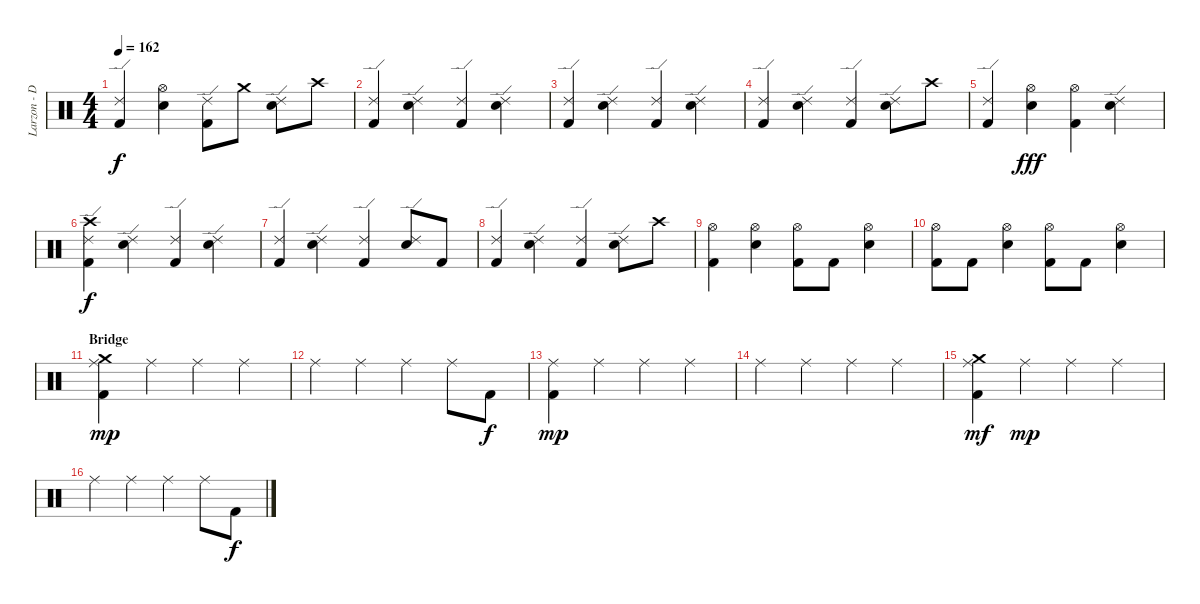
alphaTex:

\track ("Larzon - Drums" "Larzon - D") {instrument percussion}
\staff {score}
\articulation defaults
\ts (4 4)
\tempo 162
\clef neutral
\ks c
("Kick (hit) 2" "Ride (edge) 2").4{dy f} ("Electric Snare (hit)" "Hi-Hat (open)").4 ("Kick (hit) 2" "Ride (edge) 2").8 "Crash medium (hit)".8 ("Electric Snare (hit)" "Ride (edge) 2").8 "Crash high (hit)".8 |
("Kick (hit) 2" "Ride (edge) 2").4 ("Electric Snare (hit)" "Ride (edge) 2").4 ("Kick (hit) 2" "Ride (edge) 2").4 ("Electric Snare (hit)" "Ride (edge) 2").4 |
("Kick (hit) 2" "Ride (edge) 2").4 ("Electric Snare (hit)" "Ride (edge) 2").4 ("Kick (hit) 2" "Ride (edge) 2").4 ("Electric Snare (hit)" "Ride (edge) 2").4 |
("Kick (hit) 2" "Ride (edge) 2").4 ("Electric Snare (hit)" "Ride (edge) 2").4 ("Kick (hit) 2" "Ride (edge) 2").4 ("Electric Snare (hit)" "Ride (edge) 2").8 "Crash high (hit)".8 |
("Kick (hit) 2" "Ride (edge) 2").4 ("Electric Snare (hit)" "Hi-Hat (open)").4{dy fff} ("Kick (hit) 2" "Hi-Hat (open)").4 ("Electric Snare (hit)" "Ride (edge) 2").4 |
("Kick (hit) 2" "Ride (edge) 2" "Crash high (hit)").4{dy f} ("Electric Snare (hit)" "Ride (edge) 2").4 ("Kick (hit) 2" "Ride (edge) 2").4 ("Electric Snare (hit)" "Ride (edge) 2").4 |
("Kick (hit) 2" "Ride (edge) 2").4 ("Electric Snare (hit)" "Ride (edge) 2").4 ("Kick (hit) 2" "Ride (edge) 2").4 ("Electric Snare (hit)" "Ride (edge) 2").8 "Kick (hit) 2".8 |
("Kick (hit) 2" "Ride (edge) 2").4 ("Electric Snare (hit)" "Ride (edge) 2").4 ("Kick (hit) 2" "Ride (edge) 2").4 ("Electric Snare (hit)" "Ride (edge) 2").8 "Crash high (hit)".8 |
("Kick (hit) 2" "Hi-Hat (open)").4 ("Electric Snare (hit)" "Hi-Hat (open)").4 ("Kick (hit) 2" "Hi-Hat (open)").8 "Kick (hit) 2".8 ("Electric Snare (hit)" "Hi-Hat (open)").4 |
("Kick (hit) 2" "Hi-Hat (open)").8 "Kick (hit) 2".8 ("Electric Snare (hit)" "Hi-Hat (open)").4 ("Kick (hit) 2" "Hi-Hat (open)").8 "Kick (hit) 2".8 ("Electric Snare (hit)" "Hi-Hat (open)").4 |
\section ("" "Bridge")
("Ride (middle)" "Crash medium (hit)" "Kick (hit) 2").4{dy mp} "Ride (middle)".4 "Ride (middle)".4 "Ride (middle)".4 |
"Ride (middle)".4 "Ride (middle)".4 "Ride (middle)".4 "Ride (middle)".8 "Kick (hit) 2".8{dy f} |
("Ride (middle)" "Kick (hit) 2").4{dy mp} "Ride (middle)".4 "Ride (middle)".4 "Ride (middle)".4 |
"Ride (middle)".4 "Ride (middle)".4 "Ride (middle)".4 "Ride (middle)".4 |
("Ride (middle)" "Crash medium (hit)" "Kick (hit) 2").4{dy mf} "Ride (middle)".4{dy mp} "Ride (middle)".4 "Ride (middle)".4 |
"Ride (middle)".4 "Ride (middle)".4 "Ride (middle)".4 "Ride (middle)".8 "Kick (hit) 2".8{dy f}
